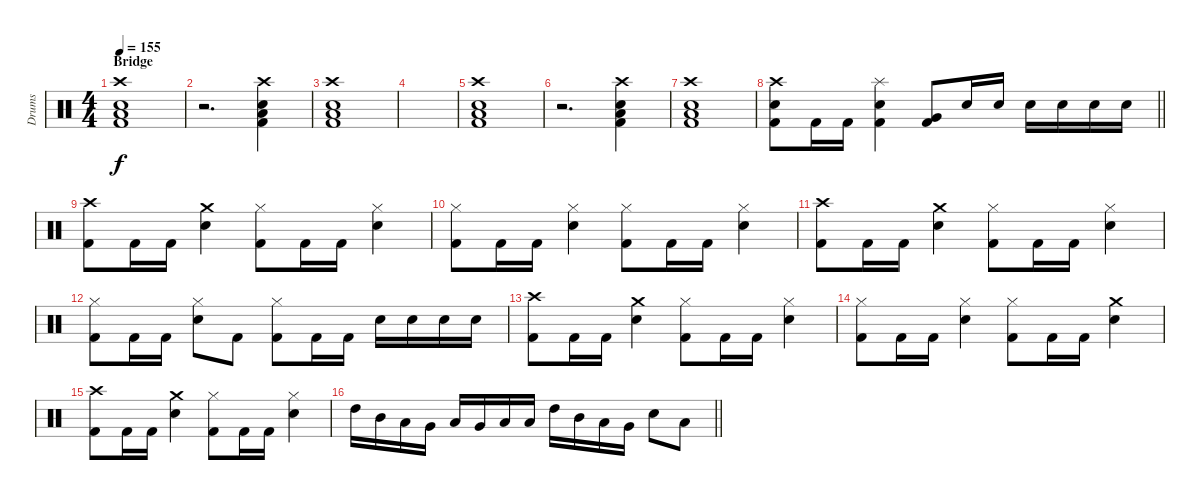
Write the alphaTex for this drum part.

\track ("Drums" "Drums") {instrument percussion}
\staff {score}
\articulation defaults
\ts (4 4)
\section ("" "Bridge")
\tempo 155
\clef neutral
\ks c
("Crash high (hit)" "Snare (hit) 2" "Low Floor Tom (hit)" "Kick (hit) 2").1{dy f} |
r.2{d} ("Crash high (hit)" "Snare (hit) 2" "Low Floor Tom (hit)" "Kick (hit) 2").4 |
("Crash high (hit)" "Snare (hit) 2" "Low Floor Tom (hit)" "Kick (hit) 2").1 |
|
("Crash high (hit)" "Snare (hit) 2" "Low Floor Tom (hit)" "Kick (hit) 2").1 |
r.2{d} ("Crash high (hit)" "Snare (hit) 2" "Low Floor Tom (hit)" "Kick (hit) 2").4 |
("Crash high (hit)" "Snare (hit) 2" "Low Floor Tom (hit)" "Kick (hit) 2").1 |
\barLineRight lightlight
("Crash high (hit)" "Snare (hit) 2" "Kick (hit) 2").8 "Kick (hit) 2".16 "Kick (hit) 2".16 ("Splash (hit)" "Snare (hit) 2" "Kick (hit) 2").4 ("Very Low Tom (hit)" "Kick (hit) 2").8 "Snare (hit) 2".16 "Snare (hit) 2".16 "Snare (hit) 2".16 "Snare (hit) 2".16 "Electric Snare (hit)".16 "Electric Snare (hit)".16 |
("Crash high (hit)" "Kick (hit) 2").8 "Kick (hit) 2".16 "Kick (hit) 2".16 ("Crash medium (hit)" "Snare (hit) 2").4 ("Hi-Hat (closed)" "Kick (hit) 2").8 "Kick (hit) 2".16 "Kick (hit) 2".16 ("Hi-Hat (closed)" "Snare (hit) 2").4 |
("Hi-Hat (closed)" "Kick (hit) 2").8 "Kick (hit) 2".16 "Kick (hit) 2".16 ("Hi-Hat (closed)" "Snare (hit) 2").4 ("Hi-Hat (closed)" "Kick (hit) 2").8 "Kick (hit) 2".16 "Kick (hit) 2".16 ("Hi-Hat (closed)" "Snare (hit) 2").4 |
("Crash high (hit)" "Kick (hit) 2").8 "Kick (hit) 2".16 "Kick (hit) 2".16 ("Crash medium (hit)" "Snare (hit) 2").4 ("Hi-Hat (closed)" "Kick (hit) 2").8 "Kick (hit) 2".16 "Kick (hit) 2".16 ("Hi-Hat (closed)" "Snare (hit) 2").4 |
("Hi-Hat (closed)" "Kick (hit) 2").8 "Kick (hit) 2".16 "Kick (hit) 2".16 ("Hi-Hat (closed)" "Snare (hit) 2").8 "Kick (hit) 2".8 ("Hi-Hat (closed)" "Kick (hit) 2").8 "Kick (hit) 2".16 "Kick (hit) 2".16 "Snare (hit) 2".16 "Snare (hit) 2".16 "Snare (hit) 2".16 "Snare (hit) 2".16 |
("Crash high (hit)" "Kick (hit) 2").8 "Kick (hit) 2".16 "Kick (hit) 2".16 ("Crash medium (hit)" "Snare (hit) 2").4 ("Hi-Hat (closed)" "Kick (hit) 2").8 "Kick (hit) 2".16 "Kick (hit) 2".16 ("Hi-Hat (closed)" "Snare (hit) 2").4 |
("Hi-Hat (closed)" "Kick (hit) 2").8 "Kick (hit) 2".16 "Kick (hit) 2".16 ("Hi-Hat (closed)" "Snare (hit) 2").4 ("Hi-Hat (closed)" "Kick (hit) 2").8 "Kick (hit) 2".16 "Kick (hit) 2".16 ("Crash medium (hit)" "Snare (hit) 2").4 |
("Crash high (hit)" "Kick (hit) 2").8 "Kick (hit) 2".16 "Kick (hit) 2".16 ("Crash medium (hit)" "Snare (hit) 2").4 ("Hi-Hat (closed)" "Kick (hit) 2").8 "Kick (hit) 2".16 "Kick (hit) 2".16 ("Hi-Hat (closed)" "Snare (hit) 2").4 |
\barLineRight lightlight "High Tom (hit)".16 "Mid Tom (hit)".16 "Low Tom (hit)".16 "Very Low Tom (hit)".16 "Low Tom (hit)".16 "Very Low Tom (hit)".16 "Low Floor Tom (hit)".16 "Low Tom (hit)".16 "High Tom (hit)".16 "Mid Tom (hit)".16 "Low Tom (hit)".16 "Very Low Tom (hit)".16 "Snare (hit) 2".8 "Low Tom (hit)".8
